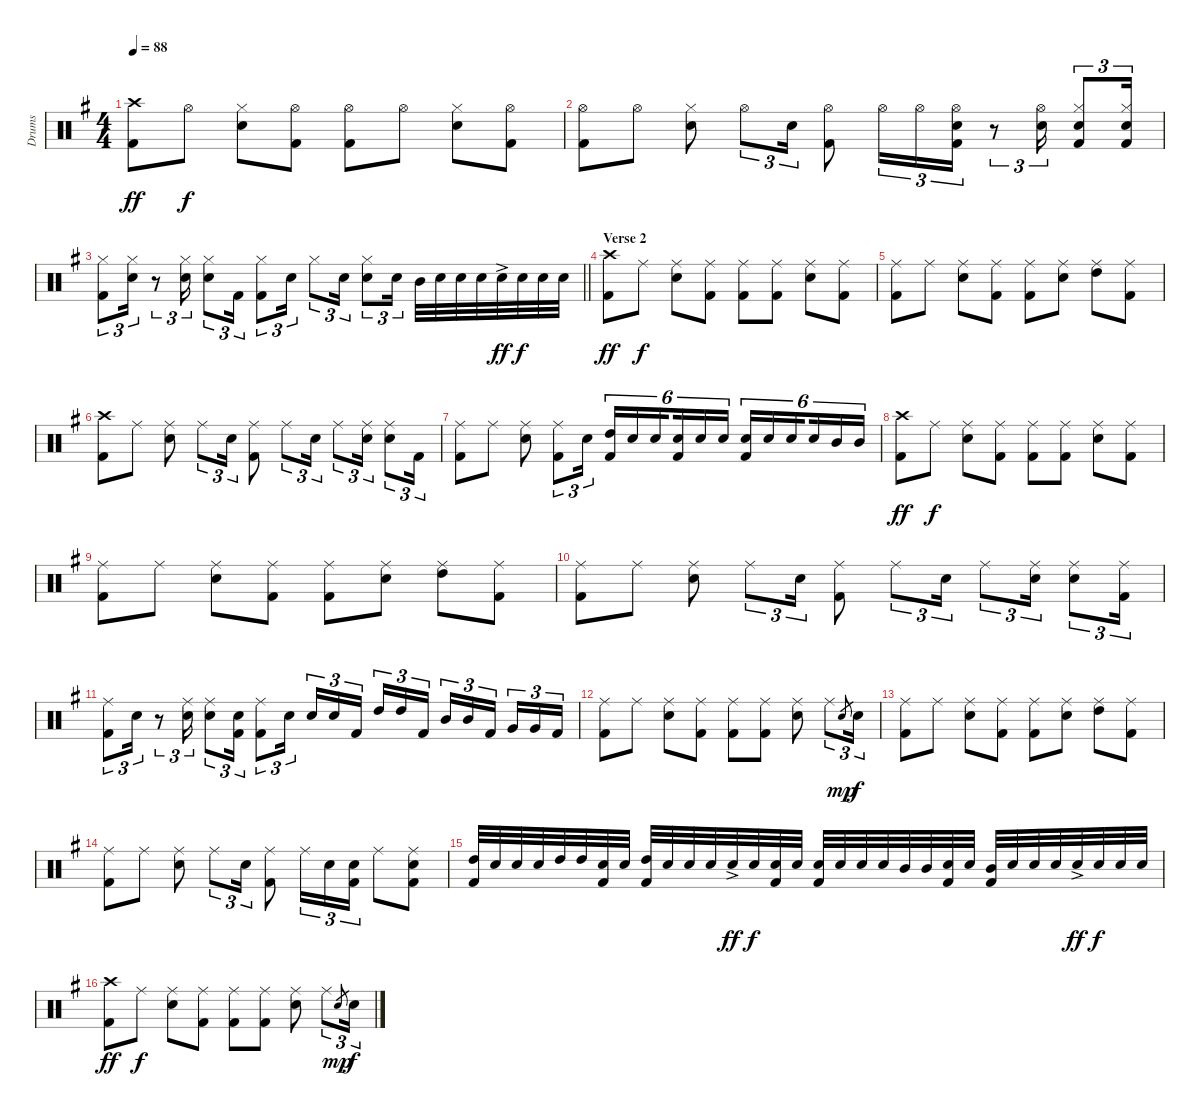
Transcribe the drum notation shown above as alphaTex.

\track ("Drums" "Drums") {instrument percussion}
\staff {score}
\articulation defaults
\ts (4 4)
\tempo 88
\clef neutral
\ks g
("Crash high (hit)" "Kick (hit) 2").8{dy ff} "Hi-Hat (open)".8{dy f} ("Hi-Hat (closed)" "Electric Snare (hit)").8 ("Hi-Hat (open)" "Kick (hit) 2").8 ("Hi-Hat (open)" "Kick (hit) 2").8 "Hi-Hat (open)".8 ("Hi-Hat (closed)" "Electric Snare (hit)").8 ("Hi-Hat (open)" "Kick (hit) 2").8 |
("Hi-Hat (open)" "Kick (hit) 2").8 "Hi-Hat (open)".8 ("Hi-Hat (closed)" "Electric Snare (hit)").8 "Hi-Hat (open)".8{tu (3 2)} "Electric Snare (hit)".16{tu (3 2)} ("Hi-Hat (open)" "Kick (hit) 2").8 "Hi-Hat (open)".16{tu (3 2)} "Hi-Hat (open)".16{tu (3 2)} ("Hi-Hat (open)" "Electric Snare (hit)" "Kick (hit) 2").16{tu (3 2)} r.8{tu (3 2)} ("Hi-Hat (open)" "Electric Snare (hit)").16{tu (3 2)} ("Hi-Hat (closed)" "Electric Snare (hit)" "Kick (hit) 2").8{tu (3 2)} ("Hi-Hat (closed)" "Electric Snare (hit)" "Kick (hit) 2").16{tu (3 2)} |
\barLineRight lightlight
("Hi-Hat (closed)" "Kick (hit) 2").8{tu (3 2)} ("Hi-Hat (closed)" "Electric Snare (hit)").16{tu (3 2)} r.8{tu (3 2)} ("Hi-Hat (closed)" "Electric Snare (hit)").16{tu (3 2)} ("Hi-Hat (closed)" "Electric Snare (hit)").8{tu (3 2)} "Kick (hit) 2".16{tu (3 2)} ("Hi-Hat (closed)" "Kick (hit) 2").8{tu (3 2)} "Electric Snare (hit)".16{tu (3 2)} "Hi-Hat (closed)".8{tu (3 2)} "Electric Snare (hit)".16{tu (3 2)} ("Hi-Hat (closed)" "Electric Snare (hit)").8{tu (3 2)} "Electric Snare (hit)".16{tu (3 2)} "Mid Tom (hit)".32 "Electric Snare (hit)".32 "Electric Snare (hit)".32 "Electric Snare (hit)".32 "Electric Snare (hit)"{ac}.32{dy ff} "Electric Snare (hit)".32{dy f} "Electric Snare (hit)".32 "Electric Snare (hit)".32 |
\section ("" "Verse 2")
("Crash high (hit)" "Kick (hit) 2").8{dy ff} "Ride (middle)".8{dy f} ("Ride (middle)" "Electric Snare (hit)").8 ("Ride (middle)" "Kick (hit) 2").8 ("Ride (middle)" "Kick (hit) 2").8 ("Ride (middle)" "Kick (hit) 2").8 ("Ride (middle)" "Electric Snare (hit)").8 ("Ride (middle)" "Kick (hit) 2").8 |
("Ride (middle)" "Kick (hit) 2").8 "Ride (middle)".8 ("Ride (middle)" "Electric Snare (hit)").8 ("Ride (middle)" "Kick (hit) 2").8 ("Ride (middle)" "Kick (hit) 2").8 ("Ride (middle)" "Electric Snare (hit)").8 ("Ride (middle)" "High Tom (hit)").8 ("Ride (middle)" "Kick (hit) 2").8 |
("Crash high (hit)" "Kick (hit) 2").8 "Ride (middle)".8 ("Ride (middle)" "Electric Snare (hit)").8 "Ride (middle)".8{tu (3 2)} "Electric Snare (hit)".16{tu (3 2)} ("Ride (middle)" "Kick (hit) 2").8 "Ride (middle)".8{tu (3 2)} "Electric Snare (hit)".16{tu (3 2)} "Ride (middle)".8{tu (3 2)} ("Ride (middle)" "Electric Snare (hit)").16{tu (3 2)} ("Ride (middle)" "Electric Snare (hit)").8{tu (3 2)} "Kick (hit) 2".16{tu (3 2)} |
("Ride (middle)" "Kick (hit) 2").8 "Ride (middle)".8 ("Ride (middle)" "Electric Snare (hit)").8 ("Ride (middle)" "Kick (hit) 2").8{tu (3 2)} "Electric Snare (hit)".16{tu (3 2)} ("High Tom (hit)" "Kick (hit) 2").16{tu (6 4)} "Electric Snare (hit)".16{tu (6 4)} "Electric Snare (hit)".16{tu (6 4) beam splitsecondary} ("Electric Snare (hit)" "Kick (hit) 2").16{tu (6 4)} "Electric Snare (hit)".16{tu (6 4)} "Electric Snare (hit)".16{tu (6 4)} ("Electric Snare (hit)" "Kick (hit) 2").16{tu (6 4)} "Electric Snare (hit)".16{tu (6 4)} "Electric Snare (hit)".16{tu (6 4) beam splitsecondary} "Electric Snare (hit)".16{tu (6 4)} "Mid Tom (hit)".16{tu (6 4)} "Mid Tom (hit)".16{tu (6 4)} |
("Crash high (hit)" "Kick (hit) 2").8{dy ff} "Ride (middle)".8{dy f} ("Ride (middle)" "Electric Snare (hit)").8 ("Ride (middle)" "Kick (hit) 2").8 ("Ride (middle)" "Kick (hit) 2").8 ("Ride (middle)" "Kick (hit) 2").8 ("Ride (middle)" "Electric Snare (hit)").8 ("Ride (middle)" "Kick (hit) 2").8 |
("Ride (middle)" "Kick (hit) 2").8 "Ride (middle)".8 ("Ride (middle)" "Electric Snare (hit)").8 ("Ride (middle)" "Kick (hit) 2").8 ("Ride (middle)" "Kick (hit) 2").8 ("Ride (middle)" "Electric Snare (hit)").8 ("Ride (middle)" "High Tom (hit)").8 ("Ride (middle)" "Kick (hit) 2").8 |
("Ride (middle)" "Kick (hit) 2").8 "Ride (middle)".8 ("Ride (middle)" "Electric Snare (hit)").8 "Ride (middle)".8{tu (3 2)} "Electric Snare (hit)".16{tu (3 2)} ("Ride (middle)" "Kick (hit) 2").8 "Ride (middle)".8{tu (3 2)} "Electric Snare (hit)".16{tu (3 2)} "Ride (middle)".8{tu (3 2)} ("Ride (middle)" "Electric Snare (hit)").16{tu (3 2)} ("Ride (middle)" "Electric Snare (hit)").8{tu (3 2)} ("Ride (middle)" "Kick (hit) 2").16{tu (3 2)} |
("Ride (middle)" "Kick (hit) 2").8{tu (3 2)} "Electric Snare (hit)".16{tu (3 2)} r.8{tu (3 2)} ("Ride (middle)" "Electric Snare (hit)").16{tu (3 2)} ("Ride (middle)" "Electric Snare (hit)").8{tu (3 2)} ("Electric Snare (hit)" "Kick (hit) 2").16{tu (3 2)} ("Ride (middle)" "Kick (hit) 2").8{tu (3 2)} "Electric Snare (hit)".16{tu (3 2)} "Electric Snare (hit)".16{tu (3 2)} "Electric Snare (hit)".16{tu (3 2)} "Kick (hit) 2".16{tu (3 2) beam splitsecondary} "High Tom (hit)".16{tu (3 2)} "High Tom (hit)".16{tu (3 2)} "Kick (hit) 2".16{tu (3 2)} "Mid Tom (hit)".16{tu (3 2)} "Mid Tom (hit)".16{tu (3 2)} "Kick (hit) 2".16{tu (3 2) beam splitsecondary} "Very Low Tom (hit)".16{tu (3 2)} "Very Low Tom (hit)".16{tu (3 2)} "Kick (hit) 2".16{tu (3 2)} |
("Ride (middle)" "Kick (hit) 2").8 "Ride (middle)".8 ("Ride (middle)" "Electric Snare (hit)").8 ("Ride (middle)" "Kick (hit) 2").8 ("Ride (middle)" "Kick (hit) 2").8 ("Ride (middle)" "Kick (hit) 2").8 ("Ride (middle)" "Electric Snare (hit)").8 "Ride (middle)".8{tu (3 2)} "Electric Snare (hit)".8{gr dy mp} "Electric Snare (hit)".16{tu (3 2) dy f} |
("Ride (middle)" "Kick (hit) 2").8 "Ride (middle)".8 ("Ride (middle)" "Electric Snare (hit)").8 ("Ride (middle)" "Kick (hit) 2").8 ("Ride (middle)" "Kick (hit) 2").8 ("Ride (middle)" "Electric Snare (hit)").8 ("Ride (middle)" "High Tom (hit)").8 ("Ride (middle)" "Kick (hit) 2").8 |
("Ride (middle)" "Kick (hit) 2").8 "Ride (middle)".8 ("Ride (middle)" "Electric Snare (hit)").8 "Ride (middle)".8{tu (3 2)} "Electric Snare (hit)".16{tu (3 2)} ("Ride (middle)" "Kick (hit) 2").8 "Ride (middle)".16{tu (3 2)} "Electric Snare (hit)".16{tu (3 2)} ("Electric Snare (hit)" "Kick (hit) 2").16{tu (3 2)} "Ride (middle)".8 ("Ride (middle)" "Electric Snare (hit)" "Kick (hit) 2").8 |
("High Tom (hit)" "Kick (hit) 2").32 "Electric Snare (hit)".32 "Electric Snare (hit)".32 "Electric Snare (hit)".32 "High Tom (hit)".32 "High Tom (hit)".32 ("Electric Snare (hit)" "Kick (hit) 2").32 "Electric Snare (hit)".32 ("High Tom (hit)" "Kick (hit) 2").32 "Electric Snare (hit)".32 "Electric Snare (hit)".32 "Electric Snare (hit)".32 "Electric Snare (hit)"{ac}.32{dy ff} "Electric Snare (hit)".32{dy f} ("Electric Snare (hit)" "Kick (hit) 2").32 "Electric Snare (hit)".32 ("Electric Snare (hit)" "Kick (hit) 2").32 "Electric Snare (hit)".32 "Electric Snare (hit)".32 "Electric Snare (hit)".32 "Mid Tom (hit)".32 "Mid Tom (hit)".32 ("Electric Snare (hit)" "Kick (hit) 2").32 "Electric Snare (hit)".32 ("Mid Tom (hit)" "Kick (hit) 2").32 "Electric Snare (hit)".32 "Electric Snare (hit)".32 "Electric Snare (hit)".32 "Electric Snare (hit)"{ac}.32{dy ff} "Electric Snare (hit)".32{dy f} "Electric Snare (hit)".32 "Electric Snare (hit)".32 |
("Crash high (hit)" "Kick (hit) 2").8{dy ff} "Ride (middle)".8{dy f} ("Ride (middle)" "Electric Snare (hit)").8 ("Ride (middle)" "Kick (hit) 2").8 ("Ride (middle)" "Kick (hit) 2").8 ("Ride (middle)" "Kick (hit) 2").8 ("Ride (middle)" "Electric Snare (hit)").8 "Ride (middle)".8{tu (3 2)} "Electric Snare (hit)".8{gr dy mp} "Electric Snare (hit)".16{tu (3 2) dy f}
